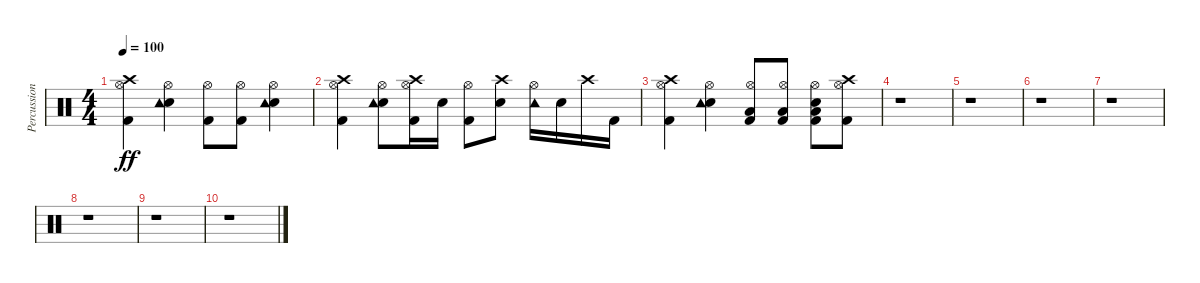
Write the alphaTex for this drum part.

\track ("Percussions" "Percussion") {instrument percussion}
\staff {score}
\articulation defaults
\ts (4 4)
\tempo 100
\clef neutral
\ks c
("Kick (hit) 2" "Hi-Hat (open)" "Crash high (hit)").4{dy ff} ("Snare (hit) 2" "Hi-Hat (open)" "Tambourine (hit)").4 ("Kick (hit) 2" "Hi-Hat (open)").8 ("Kick (hit) 2" "Hi-Hat (open)").8 ("Snare (hit) 2" "Hi-Hat (open)" "Tambourine (hit)").4 |
("Kick (hit) 2" "Hi-Hat (open)" "Crash high (hit)").4 ("Snare (hit) 2" "Hi-Hat (open)" "Tambourine (hit)").8 ("Kick (hit) 2" "Hi-Hat (open)" "Crash high (hit)").16 "Snare (hit) 2".16 ("Kick (hit) 2" "Hi-Hat (open)").8 ("Snare (hit) 2" "Crash high (hit)").8 ("Hi-Hat (open)" "Tambourine (hit)").16 "Snare (hit) 2".16 "Crash high (hit)".16 "Kick (hit) 2".16 |
("Kick (hit) 2" "Hi-Hat (open)" "Crash high (hit)").4 ("Snare (hit) 2" "Hi-Hat (open)" "Tambourine (hit)").4 ("Kick (hit) 2" "Low Floor Tom (hit)" "Hi-Hat (open)").8 ("Kick (hit) 2" "Low Floor Tom (hit)" "Hi-Hat (open)").8 ("Kick (hit) 2" "Snare (hit) 2" "Low Floor Tom (hit)" "Hi-Hat (open)").8 ("Kick (hit) 2" "Hi-Hat (open)" "Crash high (hit)").8 |
r.1 |
r.1 |
r.1 |
r.1 |
r.1 |
r.1 |
r.1
